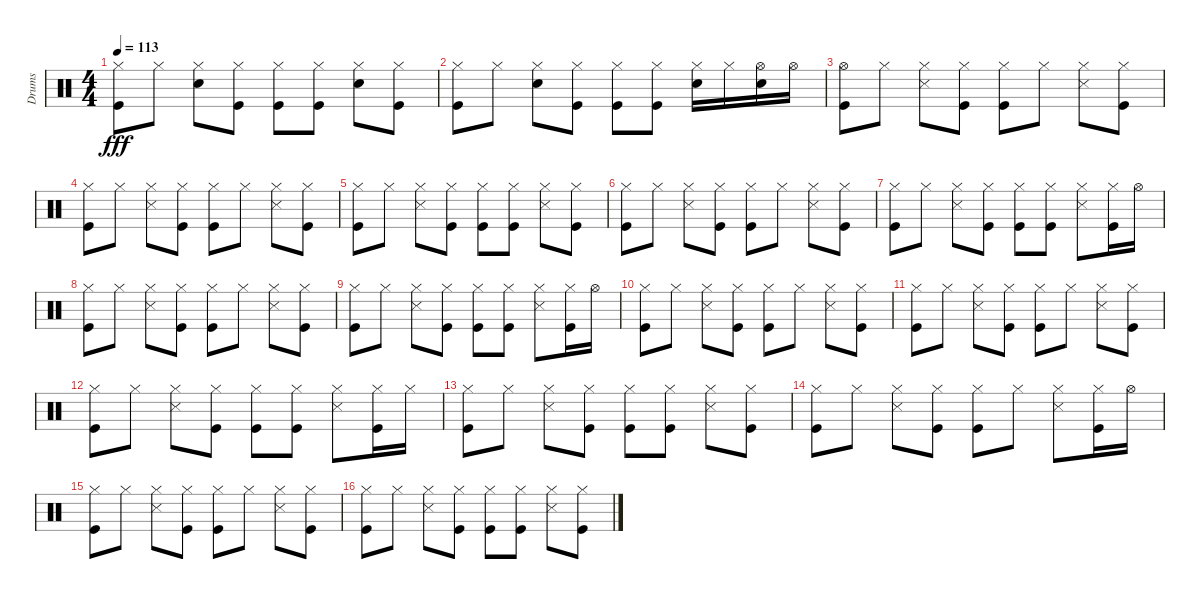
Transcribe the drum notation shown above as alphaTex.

\track ("Drums" "Drums") {instrument percussion}
\staff {score}
\articulation defaults
\ts (4 4)
\tempo 113
\clef neutral
\ks c
("Kick (hit)" "Hi-Hat (closed)").8{dy fff} "Hi-Hat (closed)".8 ("Snare (hit) 2" "Hi-Hat (closed)").8 ("Kick (hit)" "Hi-Hat (closed)").8 ("Kick (hit)" "Hi-Hat (closed)").8 ("Kick (hit)" "Hi-Hat (closed)").8 ("Snare (hit) 2" "Hi-Hat (closed)").8 ("Kick (hit)" "Hi-Hat (closed)").8 |
("Kick (hit)" "Hi-Hat (closed)").8 "Hi-Hat (closed)".8 ("Snare (hit) 2" "Hi-Hat (closed)").8 ("Kick (hit)" "Hi-Hat (closed)").8 ("Kick (hit)" "Hi-Hat (closed)").8 ("Kick (hit)" "Hi-Hat (closed)").8 ("Snare (hit) 2" "Hi-Hat (closed)").16 "Hi-Hat (closed)".16 ("Snare (hit) 2" "Hi-Hat (open)").16 "Hi-Hat (open)".16 |
("Kick (hit)" "Hi-Hat (open)").8 "Hi-Hat (closed)".8 ("Snare (side stick) 3" "Hi-Hat (closed)").8 ("Kick (hit)" "Hi-Hat (closed)").8 ("Kick (hit)" "Hi-Hat (closed)").8 "Hi-Hat (closed)".8 ("Snare (side stick) 3" "Hi-Hat (closed)").8 ("Kick (hit)" "Hi-Hat (closed)").8 |
("Kick (hit)" "Hi-Hat (closed)").8 "Hi-Hat (closed)".8 ("Snare (side stick) 3" "Hi-Hat (closed)").8 ("Kick (hit)" "Hi-Hat (closed)").8 ("Kick (hit)" "Hi-Hat (closed)").8 "Hi-Hat (closed)".8 ("Snare (side stick) 3" "Hi-Hat (closed)").8 ("Kick (hit)" "Hi-Hat (closed)").8 |
("Kick (hit)" "Hi-Hat (closed)").8 "Hi-Hat (closed)".8 ("Snare (side stick) 3" "Hi-Hat (closed)").8 ("Kick (hit)" "Hi-Hat (closed)").8 ("Kick (hit)" "Hi-Hat (closed)").8 ("Kick (hit)" "Hi-Hat (closed)").8 ("Snare (side stick) 3" "Hi-Hat (closed)").8 ("Kick (hit)" "Hi-Hat (closed)").8 |
("Kick (hit)" "Hi-Hat (closed)").8 "Hi-Hat (closed)".8 ("Snare (side stick) 3" "Hi-Hat (closed)").8 ("Kick (hit)" "Hi-Hat (closed)").8 ("Kick (hit)" "Hi-Hat (closed)").8 "Hi-Hat (closed)".8 ("Snare (side stick) 3" "Hi-Hat (closed)").8 ("Kick (hit)" "Hi-Hat (closed)").8 |
("Kick (hit)" "Hi-Hat (closed)").8 "Hi-Hat (closed)".8 ("Snare (side stick) 3" "Hi-Hat (closed)").8 ("Kick (hit)" "Hi-Hat (closed)").8 ("Kick (hit)" "Hi-Hat (closed)").8 ("Kick (hit)" "Hi-Hat (closed)").8 ("Snare (side stick) 3" "Hi-Hat (closed)").8 ("Kick (hit)" "Hi-Hat (closed)").16 "Hi-Hat (open)".16 |
("Kick (hit)" "Hi-Hat (closed)").8 "Hi-Hat (closed)".8 ("Snare (side stick) 3" "Hi-Hat (closed)").8 ("Kick (hit)" "Hi-Hat (closed)").8 ("Kick (hit)" "Hi-Hat (closed)").8 "Hi-Hat (closed)".8 ("Snare (side stick) 3" "Hi-Hat (closed)").8 ("Kick (hit)" "Hi-Hat (closed)").8 |
("Kick (hit)" "Hi-Hat (closed)").8 "Hi-Hat (closed)".8 ("Snare (side stick) 3" "Hi-Hat (closed)").8 ("Kick (hit)" "Hi-Hat (closed)").8 ("Kick (hit)" "Hi-Hat (closed)").8 ("Kick (hit)" "Hi-Hat (closed)").8 ("Snare (side stick) 3" "Hi-Hat (closed)").8 ("Kick (hit)" "Hi-Hat (closed)").16 "Hi-Hat (open)".16 |
("Kick (hit)" "Hi-Hat (closed)").8 "Hi-Hat (closed)".8 ("Snare (side stick) 3" "Hi-Hat (closed)").8 ("Kick (hit)" "Hi-Hat (closed)").8 ("Kick (hit)" "Hi-Hat (closed)").8 "Hi-Hat (closed)".8 ("Snare (side stick) 3" "Hi-Hat (closed)").8 ("Kick (hit)" "Hi-Hat (closed)").8 |
("Kick (hit)" "Hi-Hat (closed)").8 "Hi-Hat (closed)".8 ("Snare (side stick) 3" "Hi-Hat (closed)").8 ("Kick (hit)" "Hi-Hat (closed)").8 ("Kick (hit)" "Hi-Hat (closed)").8 "Hi-Hat (closed)".8 ("Snare (side stick) 3" "Hi-Hat (closed)").8 ("Kick (hit)" "Hi-Hat (closed)").8 |
("Kick (hit)" "Hi-Hat (closed)").8 "Hi-Hat (closed)".8 ("Snare (side stick) 3" "Hi-Hat (closed)").8 ("Kick (hit)" "Hi-Hat (closed)").8 ("Kick (hit)" "Hi-Hat (closed)").8 ("Kick (hit)" "Hi-Hat (closed)").8 ("Snare (side stick) 3" "Hi-Hat (closed)").8 ("Kick (hit)" "Hi-Hat (closed)").16 "Hi-Hat (closed)".16 |
("Kick (hit)" "Hi-Hat (closed)").8 "Hi-Hat (closed)".8 ("Snare (side stick) 3" "Hi-Hat (closed)").8 ("Kick (hit)" "Hi-Hat (closed)").8 ("Kick (hit)" "Hi-Hat (closed)").8 ("Kick (hit)" "Hi-Hat (closed)").8 ("Snare (side stick) 3" "Hi-Hat (closed)").8 ("Kick (hit)" "Hi-Hat (closed)").8 |
("Kick (hit)" "Hi-Hat (closed)").8 "Hi-Hat (closed)".8 ("Snare (side stick) 3" "Hi-Hat (closed)").8 ("Kick (hit)" "Hi-Hat (closed)").8 ("Kick (hit)" "Hi-Hat (closed)").8 "Hi-Hat (closed)".8 ("Snare (side stick) 3" "Hi-Hat (closed)").8 ("Kick (hit)" "Hi-Hat (closed)").16 "Hi-Hat (open)".16 |
("Kick (hit)" "Hi-Hat (closed)").8 "Hi-Hat (closed)".8 ("Snare (side stick) 3" "Hi-Hat (closed)").8 ("Kick (hit)" "Hi-Hat (closed)").8 ("Kick (hit)" "Hi-Hat (closed)").8 "Hi-Hat (closed)".8 ("Snare (side stick) 3" "Hi-Hat (closed)").8 ("Kick (hit)" "Hi-Hat (closed)").8 |
("Kick (hit)" "Hi-Hat (closed)").8 "Hi-Hat (closed)".8 ("Snare (side stick) 3" "Hi-Hat (closed)").8 ("Kick (hit)" "Hi-Hat (closed)").8 ("Kick (hit)" "Hi-Hat (closed)").8 ("Kick (hit)" "Hi-Hat (closed)").8 ("Snare (side stick) 3" "Hi-Hat (closed)").8 ("Kick (hit)" "Hi-Hat (closed)").8
